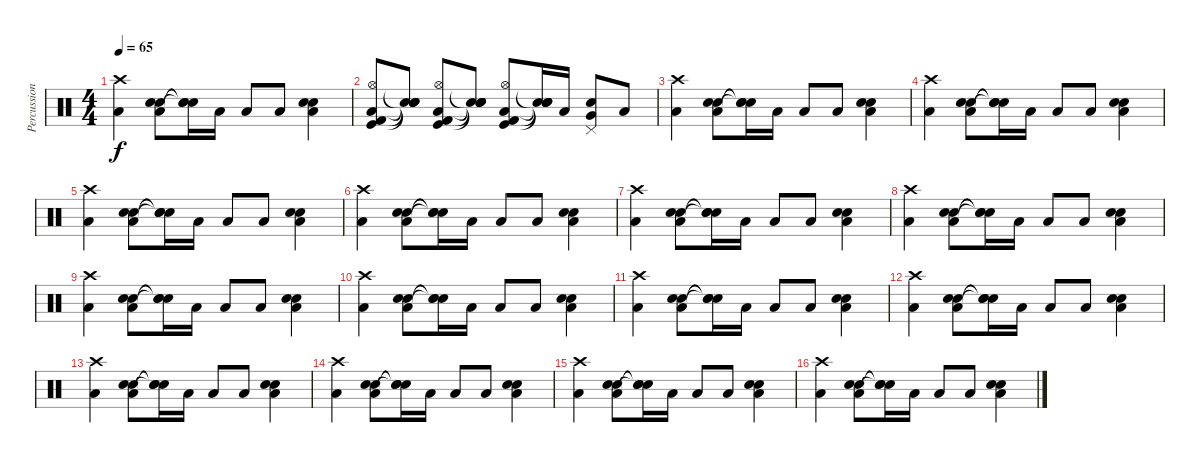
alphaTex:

\track ("Percussion" "Percussion") {instrument percussion}
\staff {score}
\articulation defaults
\ts (4 4)
\tempo 65
\clef neutral
\ks c
("Crash high (hit)" "Low Tom (hit)").4{dy f} ("Snare (hit) 2" "Electric Snare (hit)" "Low Tom (hit)").8 ("Snare (hit)"{t} "Snare (hit)"{t} "Snare (hit)"{t}).16 "Low Tom (hit)".16 "Low Tom (hit)".8 "Low Tom (hit)".8 ("Snare (hit) 2" "Electric Snare (hit)" "Low Tom (hit)").4 |
("Kick (hit) 2" "Hi-Hat (open)" "Low Tom (hit)" "Kick (hit)").8 ("Snare (hit)"{t} "Snare (hit)"{t} "Snare (hit)"{t} "Snare (hit)"{t}).8 ("Kick (hit) 2" "Hi-Hat (open)" "Low Tom (hit)" "Kick (hit)").8 ("Snare (hit)"{t} "Snare (hit)"{t} "Snare (hit)"{t} "Snare (hit)"{t}).8 ("Kick (hit) 2" "Hi-Hat (open)" "Low Tom (hit)" "Kick (hit)").8 ("Snare (hit)"{t} "Snare (hit)"{t} "Snare (hit)"{t} "Snare (hit)"{t}).16 "Low Tom (hit)".16 ("Pedal Hi-Hat (hit)" "Very Low Tom (hit)" "Electric Snare (hit)").8 "Low Tom (hit)".8 |
("Crash high (hit)" "Low Tom (hit)").4 ("Snare (hit) 2" "Electric Snare (hit)" "Low Tom (hit)").8 ("Snare (hit)"{t} "Snare (hit)"{t} "Snare (hit)"{t}).16 "Low Tom (hit)".16 "Low Tom (hit)".8 "Low Tom (hit)".8 ("Snare (hit) 2" "Electric Snare (hit)" "Low Tom (hit)").4 |
("Crash high (hit)" "Low Tom (hit)").4 ("Snare (hit) 2" "Electric Snare (hit)" "Low Tom (hit)").8 ("Snare (hit)"{t} "Snare (hit)"{t} "Snare (hit)"{t}).16 "Low Tom (hit)".16 "Low Tom (hit)".8 "Low Tom (hit)".8 ("Snare (hit) 2" "Electric Snare (hit)" "Low Tom (hit)").4 |
("Crash high (hit)" "Low Tom (hit)").4 ("Snare (hit) 2" "Electric Snare (hit)" "Low Tom (hit)").8 ("Snare (hit)"{t} "Snare (hit)"{t} "Snare (hit)"{t}).16 "Low Tom (hit)".16 "Low Tom (hit)".8 "Low Tom (hit)".8 ("Snare (hit) 2" "Electric Snare (hit)" "Low Tom (hit)").4 |
("Crash high (hit)" "Low Tom (hit)").4 ("Snare (hit) 2" "Electric Snare (hit)" "Low Tom (hit)").8 ("Snare (hit)"{t} "Snare (hit)"{t} "Snare (hit)"{t}).16 "Low Tom (hit)".16 "Low Tom (hit)".8 "Low Tom (hit)".8 ("Snare (hit) 2" "Electric Snare (hit)" "Low Tom (hit)").4 |
("Crash high (hit)" "Low Tom (hit)").4 ("Snare (hit) 2" "Electric Snare (hit)" "Low Tom (hit)").8 ("Snare (hit)"{t} "Snare (hit)"{t} "Snare (hit)"{t}).16 "Low Tom (hit)".16 "Low Tom (hit)".8 "Low Tom (hit)".8 ("Snare (hit) 2" "Electric Snare (hit)" "Low Tom (hit)").4 |
("Crash high (hit)" "Low Tom (hit)").4 ("Snare (hit) 2" "Electric Snare (hit)" "Low Tom (hit)").8 ("Snare (hit)"{t} "Snare (hit)"{t} "Snare (hit)"{t}).16 "Low Tom (hit)".16 "Low Tom (hit)".8 "Low Tom (hit)".8 ("Snare (hit) 2" "Electric Snare (hit)" "Low Tom (hit)").4 |
("Crash high (hit)" "Low Tom (hit)").4 ("Snare (hit) 2" "Electric Snare (hit)" "Low Tom (hit)").8 ("Snare (hit)"{t} "Snare (hit)"{t} "Snare (hit)"{t}).16 "Low Tom (hit)".16 "Low Tom (hit)".8 "Low Tom (hit)".8 ("Snare (hit) 2" "Electric Snare (hit)" "Low Tom (hit)").4 |
("Crash high (hit)" "Low Tom (hit)").4 ("Snare (hit) 2" "Electric Snare (hit)" "Low Tom (hit)").8 ("Snare (hit)"{t} "Snare (hit)"{t} "Snare (hit)"{t}).16 "Low Tom (hit)".16 "Low Tom (hit)".8 "Low Tom (hit)".8 ("Snare (hit) 2" "Electric Snare (hit)" "Low Tom (hit)").4 |
("Crash high (hit)" "Low Tom (hit)").4 ("Snare (hit) 2" "Electric Snare (hit)" "Low Tom (hit)").8 ("Snare (hit)"{t} "Snare (hit)"{t} "Snare (hit)"{t}).16 "Low Tom (hit)".16 "Low Tom (hit)".8 "Low Tom (hit)".8 ("Snare (hit) 2" "Electric Snare (hit)" "Low Tom (hit)").4 |
("Crash high (hit)" "Low Tom (hit)").4 ("Snare (hit) 2" "Electric Snare (hit)" "Low Tom (hit)").8 ("Snare (hit)"{t} "Snare (hit)"{t} "Snare (hit)"{t}).16 "Low Tom (hit)".16 "Low Tom (hit)".8 "Low Tom (hit)".8 ("Snare (hit) 2" "Electric Snare (hit)" "Low Tom (hit)").4 |
("Crash high (hit)" "Low Tom (hit)").4 ("Snare (hit) 2" "Electric Snare (hit)" "Low Tom (hit)").8 ("Snare (hit)"{t} "Snare (hit)"{t} "Snare (hit)"{t}).16 "Low Tom (hit)".16 "Low Tom (hit)".8 "Low Tom (hit)".8 ("Snare (hit) 2" "Electric Snare (hit)" "Low Tom (hit)").4 |
("Crash high (hit)" "Low Tom (hit)").4 ("Snare (hit) 2" "Electric Snare (hit)" "Low Tom (hit)").8 ("Snare (hit)"{t} "Snare (hit)"{t} "Snare (hit)"{t}).16 "Low Tom (hit)".16 "Low Tom (hit)".8 "Low Tom (hit)".8 ("Snare (hit) 2" "Electric Snare (hit)" "Low Tom (hit)").4 |
("Crash high (hit)" "Low Tom (hit)").4 ("Snare (hit) 2" "Electric Snare (hit)" "Low Tom (hit)").8 ("Snare (hit)"{t} "Snare (hit)"{t} "Snare (hit)"{t}).16 "Low Tom (hit)".16 "Low Tom (hit)".8 "Low Tom (hit)".8 ("Snare (hit) 2" "Electric Snare (hit)" "Low Tom (hit)").4 |
("Crash high (hit)" "Low Tom (hit)").4 ("Snare (hit) 2" "Electric Snare (hit)" "Low Tom (hit)").8 ("Snare (hit)"{t} "Snare (hit)"{t} "Snare (hit)"{t}).16 "Low Tom (hit)".16 "Low Tom (hit)".8 "Low Tom (hit)".8 ("Snare (hit) 2" "Electric Snare (hit)" "Low Tom (hit)").4
